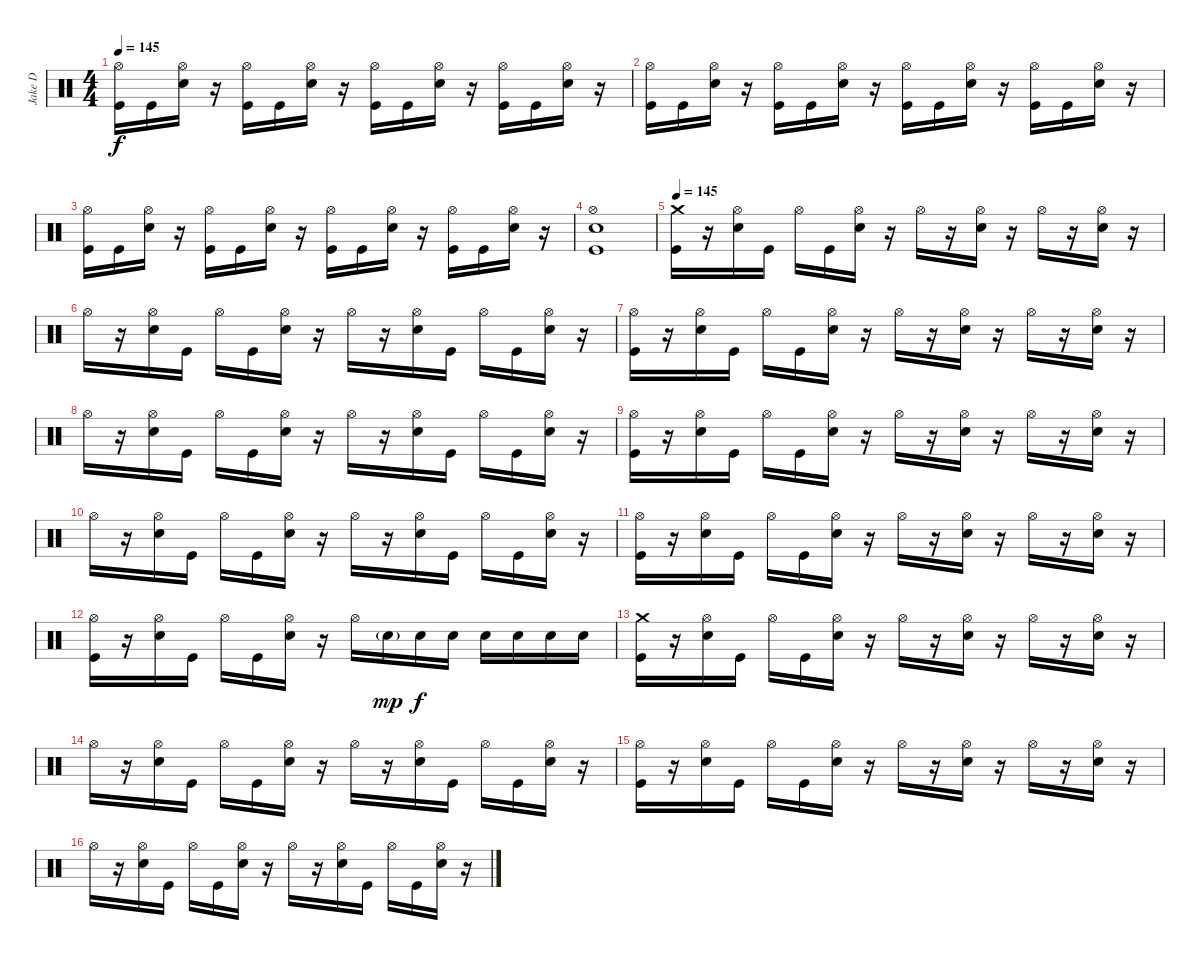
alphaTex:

\track ("Jake D" "Jake D") {instrument percussion}
\staff {score}
\articulation defaults
\ts (4 4)
\tempo 145
\clef neutral
\ks c
("Hi-Hat (open)" "Kick (hit)").16{dy f} "Kick (hit)".16 ("Hi-Hat (open)" "Electric Snare (hit)").16 r.16 ("Hi-Hat (open)" "Kick (hit)").16 "Kick (hit)".16 ("Hi-Hat (open)" "Electric Snare (hit)").16 r.16 ("Hi-Hat (open)" "Kick (hit)").16 "Kick (hit)".16 ("Hi-Hat (open)" "Electric Snare (hit)").16 r.16 ("Hi-Hat (open)" "Kick (hit)").16 "Kick (hit)".16 ("Hi-Hat (open)" "Electric Snare (hit)").16 r.16 |
("Hi-Hat (open)" "Kick (hit)").16 "Kick (hit)".16 ("Hi-Hat (open)" "Electric Snare (hit)").16 r.16 ("Hi-Hat (open)" "Kick (hit)").16 "Kick (hit)".16 ("Hi-Hat (open)" "Electric Snare (hit)").16 r.16 ("Hi-Hat (open)" "Kick (hit)").16 "Kick (hit)".16 ("Hi-Hat (open)" "Electric Snare (hit)").16 r.16 ("Hi-Hat (open)" "Kick (hit)").16 "Kick (hit)".16 ("Hi-Hat (open)" "Electric Snare (hit)").16 r.16 |
("Hi-Hat (open)" "Kick (hit)").16 "Kick (hit)".16 ("Hi-Hat (open)" "Electric Snare (hit)").16 r.16 ("Hi-Hat (open)" "Kick (hit)").16 "Kick (hit)".16 ("Hi-Hat (open)" "Electric Snare (hit)").16 r.16 ("Hi-Hat (open)" "Kick (hit)").16 "Kick (hit)".16 ("Hi-Hat (open)" "Electric Snare (hit)").16 r.16 ("Hi-Hat (open)" "Kick (hit)").16 "Kick (hit)".16 ("Hi-Hat (open)" "Electric Snare (hit)").16 r.16 |
("Hi-Hat (open)" "Electric Snare (hit)" "Kick (hit)").1 |
\tempo 145
("Crash medium (hit)" "Kick (hit)").16 r.16 ("Hi-Hat (open)" "Electric Snare (hit)").16 "Kick (hit)".16 "Hi-Hat (open)".16 "Kick (hit)".16 ("Hi-Hat (open)" "Electric Snare (hit)").16 r.16 "Hi-Hat (open)".16 r.16 ("Hi-Hat (open)" "Electric Snare (hit)").16 r.16 "Hi-Hat (open)".16 r.16 ("Hi-Hat (open)" "Electric Snare (hit)").16 r.16 |
"Hi-Hat (open)".16 r.16 ("Hi-Hat (open)" "Electric Snare (hit)").16 "Kick (hit)".16 "Hi-Hat (open)".16 "Kick (hit)".16 ("Hi-Hat (open)" "Electric Snare (hit)").16 r.16 "Hi-Hat (open)".16 r.16 ("Hi-Hat (open)" "Electric Snare (hit)").16 "Kick (hit)".16 "Hi-Hat (open)".16 "Kick (hit)".16 ("Hi-Hat (open)" "Electric Snare (hit)").16 r.16 |
("Hi-Hat (open)" "Kick (hit)").16 r.16 ("Hi-Hat (open)" "Electric Snare (hit)").16 "Kick (hit)".16 "Hi-Hat (open)".16 "Kick (hit)".16 ("Hi-Hat (open)" "Electric Snare (hit)").16 r.16 "Hi-Hat (open)".16 r.16 ("Hi-Hat (open)" "Electric Snare (hit)").16 r.16 "Hi-Hat (open)".16 r.16 ("Hi-Hat (open)" "Electric Snare (hit)").16 r.16 |
"Hi-Hat (open)".16 r.16 ("Hi-Hat (open)" "Electric Snare (hit)").16 "Kick (hit)".16 "Hi-Hat (open)".16 "Kick (hit)".16 ("Hi-Hat (open)" "Electric Snare (hit)").16 r.16 "Hi-Hat (open)".16 r.16 ("Hi-Hat (open)" "Electric Snare (hit)").16 "Kick (hit)".16 "Hi-Hat (open)".16 "Kick (hit)".16 ("Hi-Hat (open)" "Electric Snare (hit)").16 r.16 |
("Hi-Hat (open)" "Kick (hit)").16 r.16 ("Hi-Hat (open)" "Electric Snare (hit)").16 "Kick (hit)".16 "Hi-Hat (open)".16 "Kick (hit)".16 ("Hi-Hat (open)" "Electric Snare (hit)").16 r.16 "Hi-Hat (open)".16 r.16 ("Hi-Hat (open)" "Electric Snare (hit)").16 r.16 "Hi-Hat (open)".16 r.16 ("Hi-Hat (open)" "Electric Snare (hit)").16 r.16 |
"Hi-Hat (open)".16 r.16 ("Hi-Hat (open)" "Electric Snare (hit)").16 "Kick (hit)".16 "Hi-Hat (open)".16 "Kick (hit)".16 ("Hi-Hat (open)" "Electric Snare (hit)").16 r.16 "Hi-Hat (open)".16 r.16 ("Hi-Hat (open)" "Electric Snare (hit)").16 "Kick (hit)".16 "Hi-Hat (open)".16 "Kick (hit)".16 ("Hi-Hat (open)" "Electric Snare (hit)").16 r.16 |
("Hi-Hat (open)" "Kick (hit)").16 r.16 ("Hi-Hat (open)" "Electric Snare (hit)").16 "Kick (hit)".16 "Hi-Hat (open)".16 "Kick (hit)".16 ("Hi-Hat (open)" "Electric Snare (hit)").16 r.16 "Hi-Hat (open)".16 r.16 ("Hi-Hat (open)" "Electric Snare (hit)").16 r.16 "Hi-Hat (open)".16 r.16 ("Hi-Hat (open)" "Electric Snare (hit)").16 r.16 |
("Hi-Hat (open)" "Kick (hit)").16 r.16 ("Hi-Hat (open)" "Electric Snare (hit)").16 "Kick (hit)".16 "Hi-Hat (open)".16 "Kick (hit)".16 ("Hi-Hat (open)" "Electric Snare (hit)").16 r.16 "Hi-Hat (open)".16 "Electric Snare (hit)"{g}.16{dy mp} "Electric Snare (hit)".16{dy f} "Electric Snare (hit)".16 "Electric Snare (hit)".16 "Electric Snare (hit)".16 "Electric Snare (hit)".16 "Electric Snare (hit)".16 |
("Crash medium (hit)" "Kick (hit)").16 r.16 ("Hi-Hat (open)" "Electric Snare (hit)").16 "Kick (hit)".16 "Hi-Hat (open)".16 "Kick (hit)".16 ("Hi-Hat (open)" "Electric Snare (hit)").16 r.16 "Hi-Hat (open)".16 r.16 ("Hi-Hat (open)" "Electric Snare (hit)").16 r.16 "Hi-Hat (open)".16 r.16 ("Hi-Hat (open)" "Electric Snare (hit)").16 r.16 |
"Hi-Hat (open)".16 r.16 ("Hi-Hat (open)" "Electric Snare (hit)").16 "Kick (hit)".16 "Hi-Hat (open)".16 "Kick (hit)".16 ("Hi-Hat (open)" "Electric Snare (hit)").16 r.16 "Hi-Hat (open)".16 r.16 ("Hi-Hat (open)" "Electric Snare (hit)").16 "Kick (hit)".16 "Hi-Hat (open)".16 "Kick (hit)".16 ("Hi-Hat (open)" "Electric Snare (hit)").16 r.16 |
("Hi-Hat (open)" "Kick (hit)").16 r.16 ("Hi-Hat (open)" "Electric Snare (hit)").16 "Kick (hit)".16 "Hi-Hat (open)".16 "Kick (hit)".16 ("Hi-Hat (open)" "Electric Snare (hit)").16 r.16 "Hi-Hat (open)".16 r.16 ("Hi-Hat (open)" "Electric Snare (hit)").16 r.16 "Hi-Hat (open)".16 r.16 ("Hi-Hat (open)" "Electric Snare (hit)").16 r.16 |
"Hi-Hat (open)".16 r.16 ("Hi-Hat (open)" "Electric Snare (hit)").16 "Kick (hit)".16 "Hi-Hat (open)".16 "Kick (hit)".16 ("Hi-Hat (open)" "Electric Snare (hit)").16 r.16 "Hi-Hat (open)".16 r.16 ("Hi-Hat (open)" "Electric Snare (hit)").16 "Kick (hit)".16 "Hi-Hat (open)".16 "Kick (hit)".16 ("Hi-Hat (open)" "Electric Snare (hit)").16 r.16
